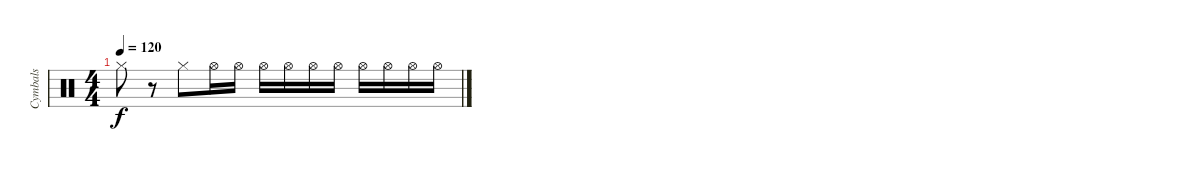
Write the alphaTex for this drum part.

\track ("Cymbals" "Cymbals") {instrument percussion}
\staff {score}
\articulation defaults
\ts (4 4)
\tempo 120
\clef neutral
\ks c "Hi-Hat (closed)".8{dy f volume 0}
r.8 "Hi-Hat (closed)".8 "Hi-Hat (open)".16 "Hi-Hat (open)".16 "Hi-Hat (open)".16 "Hi-Hat (open)".16 "Hi-Hat (open)".16 "Hi-Hat (open)".16 "Hi-Hat (open)".16 "Hi-Hat (open)".16 "Hi-Hat (open)".16 "Hi-Hat (open)".16
